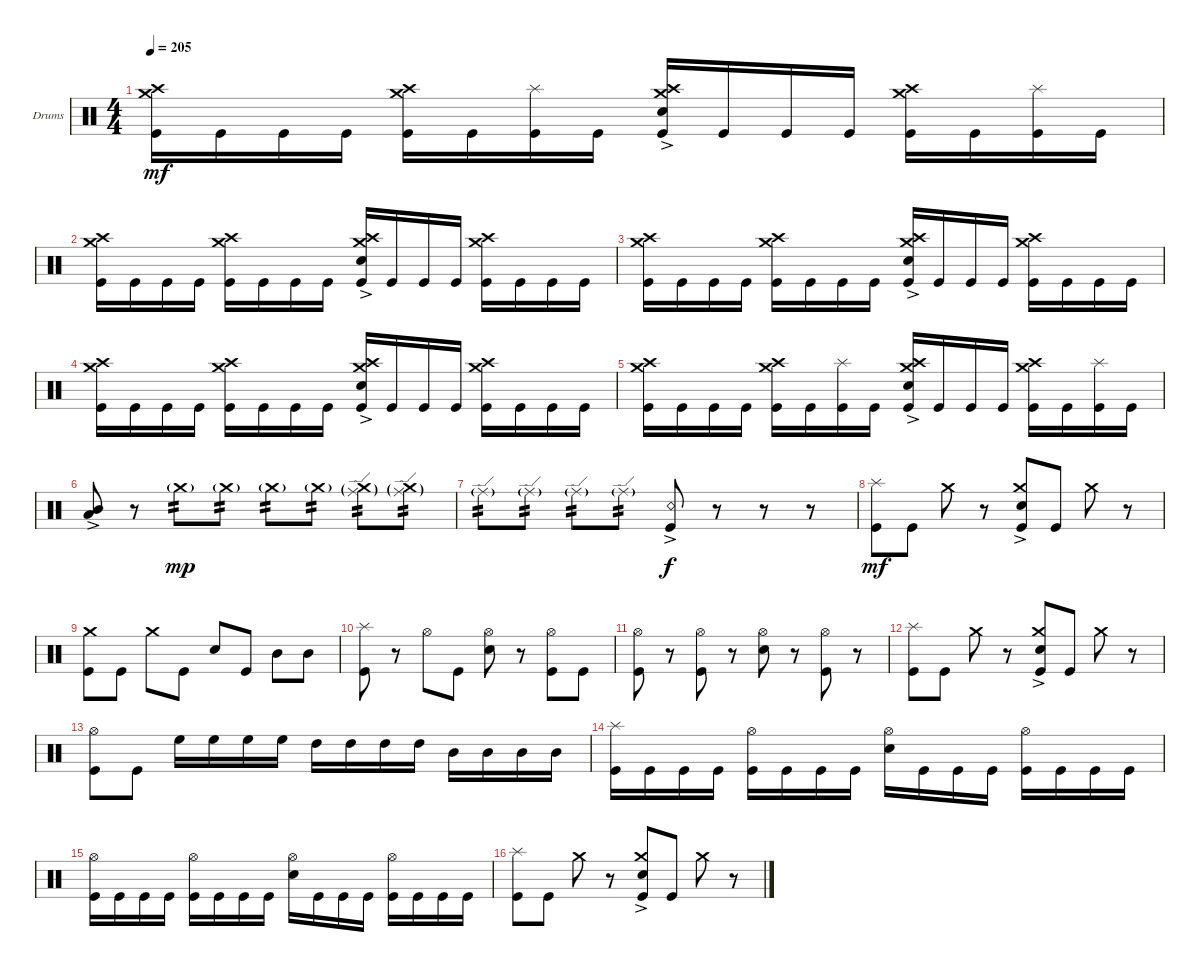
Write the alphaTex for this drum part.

\defaultSystemsLayout 4
\bracketExtendMode groupsimilarinstruments
\firstSystemTrackNameOrientation horizontal
\otherSystemsTrackNameOrientation horizontal
\track ("Drumkit" "Drums") {instrument percussion}
\staff {score}
\articulation defaults
\ts (4 4)
\tempo 205
\clef neutral
\ks c
("Kick (hit)" "Crash medium (hit)" "Crash high (hit)").16{dy mf} "Kick (hit)".16 "Kick (hit)".16 "Kick (hit)".16 ("Kick (hit)" "Crash medium (hit)" "Crash high (hit)").16 "Kick (hit)".16 ("Kick (hit)" "Splash (hit)").16 "Kick (hit)".16 ("Snare (hit) 2"{ac} "Kick (hit)" "Crash medium (hit)" "Crash high (hit)").16 "Kick (hit)".16 "Kick (hit)".16 "Kick (hit)".16 ("Kick (hit)" "Crash high (hit)" "Crash medium (hit)").16 "Kick (hit)".16 ("Kick (hit)" "Splash (hit)").16 "Kick (hit)".16 |
("Kick (hit)" "Crash medium (hit)" "Crash high (hit)").16 "Kick (hit)".16 "Kick (hit)".16 "Kick (hit)".16 ("Kick (hit)" "Crash medium (hit)" "Crash high (hit)").16 "Kick (hit)".16 "Kick (hit)".16 "Kick (hit)".16 ("Snare (hit) 2"{ac} "Kick (hit)" "Crash medium (hit)" "Crash high (hit)").16 "Kick (hit)".16 "Kick (hit)".16 "Kick (hit)".16 ("Kick (hit)" "Crash high (hit)" "Crash medium (hit)").16 "Kick (hit)".16 "Kick (hit)".16 "Kick (hit)".16 |
("Kick (hit)" "Crash medium (hit)" "Crash high (hit)").16 "Kick (hit)".16 "Kick (hit)".16 "Kick (hit)".16 ("Kick (hit)" "Crash medium (hit)" "Crash high (hit)").16 "Kick (hit)".16 "Kick (hit)".16 "Kick (hit)".16 ("Snare (hit) 2"{ac} "Kick (hit)" "Crash medium (hit)" "Crash high (hit)").16 "Kick (hit)".16 "Kick (hit)".16 "Kick (hit)".16 ("Kick (hit)" "Crash high (hit)" "Crash medium (hit)").16 "Kick (hit)".16 "Kick (hit)".16 "Kick (hit)".16 |
("Kick (hit)" "Crash medium (hit)" "Crash high (hit)").16 "Kick (hit)".16 "Kick (hit)".16 "Kick (hit)".16 ("Kick (hit)" "Crash medium (hit)" "Crash high (hit)").16 "Kick (hit)".16 "Kick (hit)".16 "Kick (hit)".16 ("Snare (hit) 2"{ac} "Kick (hit)" "Crash medium (hit)" "Crash high (hit)").16 "Kick (hit)".16 "Kick (hit)".16 "Kick (hit)".16 ("Kick (hit)" "Crash high (hit)" "Crash medium (hit)").16 "Kick (hit)".16 "Kick (hit)".16 "Kick (hit)".16 |
("Kick (hit)" "Crash medium (hit)" "Crash high (hit)").16 "Kick (hit)".16 "Kick (hit)".16 "Kick (hit)".16 ("Kick (hit)" "Crash medium (hit)" "Crash high (hit)").16 "Kick (hit)".16 ("Kick (hit)" "Splash (hit)").16 "Kick (hit)".16 ("Snare (hit) 2"{ac} "Kick (hit)" "Crash medium (hit)" "Crash high (hit)").16 "Kick (hit)".16 "Kick (hit)".16 "Kick (hit)".16 ("Kick (hit)" "Crash high (hit)" "Crash medium (hit)").16 "Kick (hit)".16 ("Kick (hit)" "Splash (hit)").16 "Kick (hit)".16 |
("Mid Tom (hit)"{ac} "Low Tom (hit)"{ac}).8 r.8 "Crash medium (hit)"{g}.8{tp 2 dy mp} "Crash medium (hit)"{g}.8{tp 2} "Crash medium (hit)"{g}.8{tp 2} "Crash medium (hit)"{g}.8{tp 2} ("Ride (edge)"{g} "Crash medium (hit)"{g}).8{tp 2} ("Ride (edge)"{g} "Crash medium (hit)"{g}).8{tp 2} |
"Ride (edge)"{g}.8{tp 2} "Ride (edge)"{g}.8{tp 2} "Ride (edge)"{g}.8{tp 2} "Ride (edge)"{g}.8{tp 2} ("Snare (rim shot)"{ac} "Kick (hit)").8{dy f} r.8 r.8 r.8 |
("Kick (hit)" "Splash (hit)").8{dy mf} "Kick (hit)".8 "Crash medium (hit)".8 r.8 ("Snare (hit) 2"{ac} "Kick (hit)" "Crash medium (hit)").8 "Kick (hit)".8 "Crash medium (hit)".8 r.8 |
("Kick (hit)" "Crash medium (hit)").8 "Kick (hit)".8 "Crash medium (hit)".8 "Kick (hit)".8 "Snare (hit) 2".8 "Kick (hit)".8 "Mid Tom (hit)".8 "Mid Tom (hit)".8 |
("Kick (hit)" "Splash (hit)").8 r.8 "Hi-Hat (open)".8 "Kick (hit)".8 ("Snare (hit) 2" "Hi-Hat (open)").8 r.8 ("Kick (hit)" "Hi-Hat (open)").8 "Kick (hit)".8 |
("Kick (hit)" "Hi-Hat (open)").8 r.8 ("Kick (hit)" "Hi-Hat (open)").8 r.8 ("Snare (hit) 2" "Hi-Hat (open)").8 r.8 ("Kick (hit)" "Hi-Hat (open)").8 r.8 |
("Kick (hit)" "Splash (hit)").8 "Kick (hit)".8 "Crash medium (hit)".8 r.8 ("Snare (hit) 2"{ac} "Kick (hit)" "Crash medium (hit)").8 "Kick (hit)".8 "Crash medium (hit)".8 r.8 |
("Kick (hit)" "Hi-Hat (open)").8 "Kick (hit)".8 "High Floor Tom (hit)".16 "High Floor Tom (hit)".16 "High Floor Tom (hit)".16 "High Floor Tom (hit)".16 "High Tom (hit)".16 "High Tom (hit)".16 "High Tom (hit)".16 "High Tom (hit)".16 "Mid Tom (hit)".16 "Mid Tom (hit)".16 "Mid Tom (hit)".16 "Mid Tom (hit)".16 |
("Kick (hit)" "Splash (hit)").16 "Kick (hit)".16 "Kick (hit)".16 "Kick (hit)".16 ("Kick (hit)" "Hi-Hat (open)").16 "Kick (hit)".16 "Kick (hit)".16 "Kick (hit)".16 ("Snare (hit) 2" "Hi-Hat (open)").16 "Kick (hit)".16 "Kick (hit)".16 "Kick (hit)".16 ("Kick (hit)" "Hi-Hat (open)").16 "Kick (hit)".16 "Kick (hit)".16 "Kick (hit)".16 |
("Kick (hit)" "Hi-Hat (open)").16 "Kick (hit)".16 "Kick (hit)".16 "Kick (hit)".16 ("Kick (hit)" "Hi-Hat (open)").16 "Kick (hit)".16 "Kick (hit)".16 "Kick (hit)".16 ("Snare (hit) 2" "Hi-Hat (open)").16 "Kick (hit)".16 "Kick (hit)".16 "Kick (hit)".16 ("Kick (hit)" "Hi-Hat (open)").16 "Kick (hit)".16 "Kick (hit)".16 "Kick (hit)".16 |
("Kick (hit)" "Splash (hit)").8 "Kick (hit)".8 "Crash medium (hit)".8 r.8 ("Snare (hit) 2"{ac} "Kick (hit)" "Crash medium (hit)").8 "Kick (hit)".8 "Crash medium (hit)".8 r.8
